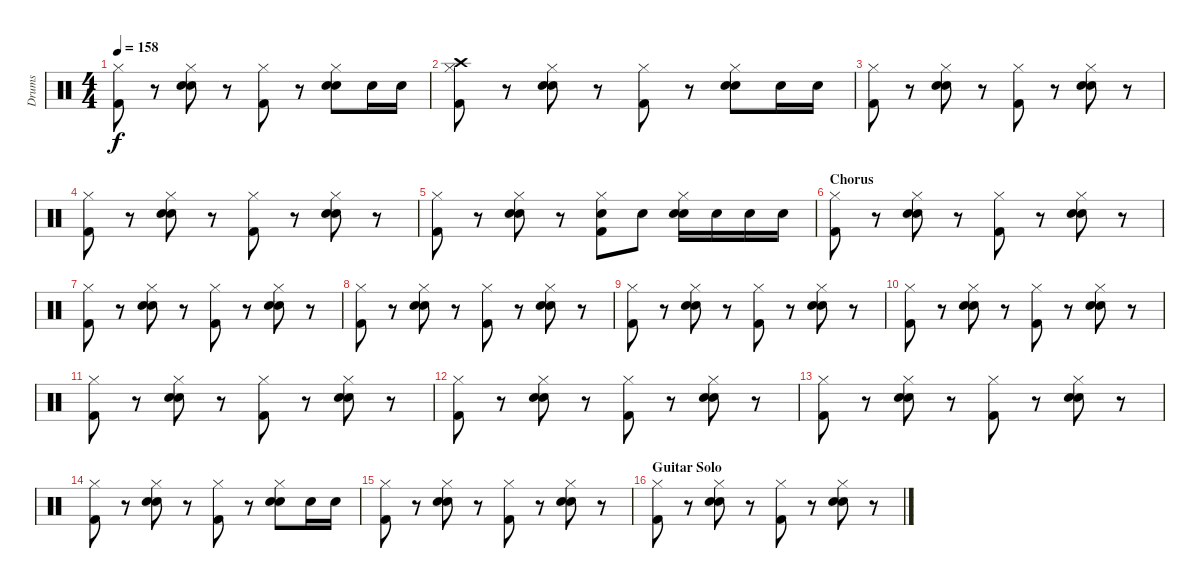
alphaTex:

\track ("Drums" "Drums") {instrument percussion}
\staff {score}
\articulation defaults
\ts (4 4)
\tempo 158
\clef neutral
\ks c
("Hi-Hat (closed)" "Kick (hit) 2").8{dy f} r.8 ("Hi-Hat (closed)" "Electric Snare (hit)" "Snare (hit) 2").8 r.8 ("Hi-Hat (closed)" "Kick (hit) 2").8 r.8 ("Hi-Hat (closed)" "Electric Snare (hit)" "Snare (hit) 2").8 "Snare (hit) 2".16 "Snare (hit) 2".16 |
("Hi-Hat (closed)" "Crash high (hit)" "Kick (hit) 2").8 r.8 ("Hi-Hat (closed)" "Electric Snare (hit)" "Snare (hit) 2").8 r.8 ("Hi-Hat (closed)" "Kick (hit) 2").8 r.8 ("Hi-Hat (closed)" "Electric Snare (hit)" "Snare (hit) 2").8 "Snare (hit) 2".16 "Snare (hit) 2".16 |
("Hi-Hat (closed)" "Kick (hit) 2").8 r.8 ("Hi-Hat (closed)" "Electric Snare (hit)" "Snare (hit) 2").8 r.8 ("Hi-Hat (closed)" "Kick (hit) 2").8 r.8 ("Hi-Hat (closed)" "Electric Snare (hit)" "Snare (hit) 2").8 r.8 |
("Hi-Hat (closed)" "Kick (hit) 2").8 r.8 ("Hi-Hat (closed)" "Electric Snare (hit)" "Snare (hit) 2").8 r.8 ("Hi-Hat (closed)" "Kick (hit) 2").8 r.8 ("Hi-Hat (closed)" "Electric Snare (hit)" "Snare (hit) 2").8 r.8 |
("Hi-Hat (closed)" "Kick (hit) 2").8 r.8 ("Hi-Hat (closed)" "Electric Snare (hit)" "Snare (hit) 2").8 r.8 ("Hi-Hat (closed)" "Snare (hit) 2" "Kick (hit) 2").8 "Snare (hit) 2".8 ("Hi-Hat (closed)" "Electric Snare (hit)" "Snare (hit) 2").16 "Snare (hit) 2".16 "Snare (hit) 2".16 "Snare (hit) 2".16 |
\section ("" "Chorus")
("Hi-Hat (closed)" "Kick (hit) 2").8 r.8 ("Hi-Hat (closed)" "Electric Snare (hit)" "Snare (hit) 2").8 r.8 ("Hi-Hat (closed)" "Kick (hit) 2").8 r.8 ("Hi-Hat (closed)" "Electric Snare (hit)" "Snare (hit) 2").8 r.8 |
("Hi-Hat (closed)" "Kick (hit) 2").8 r.8 ("Hi-Hat (closed)" "Electric Snare (hit)" "Snare (hit) 2").8 r.8 ("Hi-Hat (closed)" "Kick (hit) 2").8 r.8 ("Hi-Hat (closed)" "Electric Snare (hit)" "Snare (hit) 2").8 r.8 |
("Hi-Hat (closed)" "Kick (hit) 2").8 r.8 ("Hi-Hat (closed)" "Electric Snare (hit)" "Snare (hit) 2").8 r.8 ("Hi-Hat (closed)" "Kick (hit) 2").8 r.8 ("Hi-Hat (closed)" "Electric Snare (hit)" "Snare (hit) 2").8 r.8 |
("Hi-Hat (closed)" "Kick (hit) 2").8 r.8 ("Hi-Hat (closed)" "Electric Snare (hit)" "Snare (hit) 2").8 r.8 ("Hi-Hat (closed)" "Kick (hit) 2").8 r.8 ("Hi-Hat (closed)" "Electric Snare (hit)" "Snare (hit) 2").8 r.8 |
("Hi-Hat (closed)" "Kick (hit) 2").8 r.8 ("Hi-Hat (closed)" "Electric Snare (hit)" "Snare (hit) 2").8 r.8 ("Hi-Hat (closed)" "Kick (hit) 2").8 r.8 ("Hi-Hat (closed)" "Electric Snare (hit)" "Snare (hit) 2").8 r.8 |
("Hi-Hat (closed)" "Kick (hit) 2").8 r.8 ("Hi-Hat (closed)" "Electric Snare (hit)" "Snare (hit) 2").8 r.8 ("Hi-Hat (closed)" "Kick (hit) 2").8 r.8 ("Hi-Hat (closed)" "Electric Snare (hit)" "Snare (hit) 2").8 r.8 |
("Hi-Hat (closed)" "Kick (hit) 2").8 r.8 ("Hi-Hat (closed)" "Electric Snare (hit)" "Snare (hit) 2").8 r.8 ("Hi-Hat (closed)" "Kick (hit) 2").8 r.8 ("Hi-Hat (closed)" "Electric Snare (hit)" "Snare (hit) 2").8 r.8 |
("Hi-Hat (closed)" "Kick (hit) 2").8 r.8 ("Hi-Hat (closed)" "Electric Snare (hit)" "Snare (hit) 2").8 r.8 ("Hi-Hat (closed)" "Kick (hit) 2").8 r.8 ("Hi-Hat (closed)" "Electric Snare (hit)" "Snare (hit) 2").8 r.8 |
("Hi-Hat (closed)" "Kick (hit) 2").8 r.8 ("Hi-Hat (closed)" "Electric Snare (hit)" "Snare (hit) 2").8 r.8 ("Hi-Hat (closed)" "Kick (hit) 2").8 r.8 ("Hi-Hat (closed)" "Electric Snare (hit)" "Snare (hit) 2").8 "Snare (hit) 2".16 "Snare (hit) 2".16 |
("Hi-Hat (closed)" "Kick (hit) 2").8 r.8 ("Hi-Hat (closed)" "Electric Snare (hit)" "Snare (hit) 2").8 r.8 ("Hi-Hat (closed)" "Kick (hit) 2").8 r.8 ("Hi-Hat (closed)" "Electric Snare (hit)" "Snare (hit) 2").8 r.8 |
\section ("" "Guitar Solo")
("Hi-Hat (closed)" "Kick (hit) 2").8 r.8 ("Hi-Hat (closed)" "Electric Snare (hit)" "Snare (hit) 2").8 r.8 ("Hi-Hat (closed)" "Kick (hit) 2").8 r.8 ("Hi-Hat (closed)" "Electric Snare (hit)" "Snare (hit) 2").8 r.8
